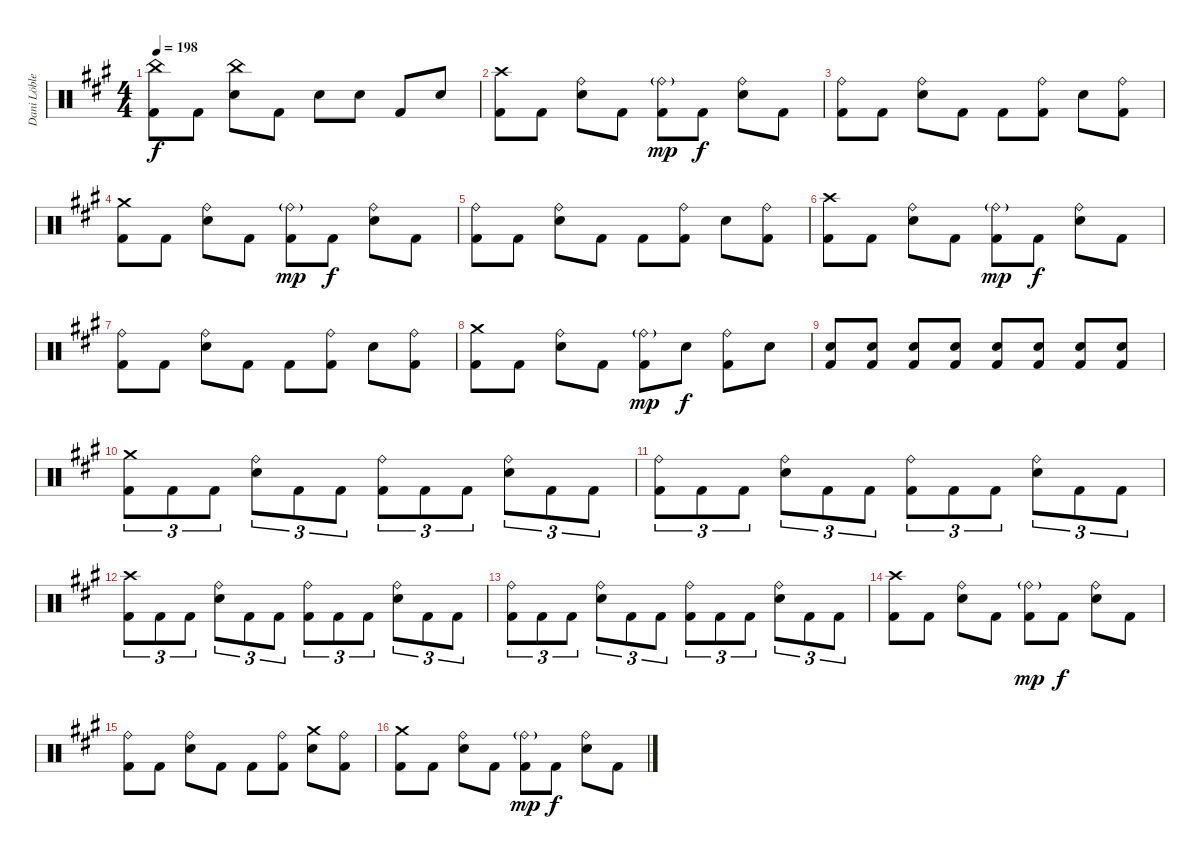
\track ("Dani Löble" "Dani Löble") {instrument percussion}
\staff {score}
\articulation defaults
\ts (4 4)
\tempo 198
\clef neutral
\ks f#minor
("China (hit)" "Kick (hit) 2").8{dy f} "Kick (hit) 2".8 ("China (hit)" "Snare (hit) 2").8 "Kick (hit) 2".8 "Snare (hit) 2".8 "Snare (hit) 2".8 "Kick (hit) 2".8 "Snare (hit) 2".8 |
("Crash high (hit)" "Kick (hit) 2").8 "Kick (hit) 2".8 ("Ride (bell)" "Snare (hit) 2").8 "Kick (hit) 2".8 ("Ride (bell)"{g} "Kick (hit) 2").8{dy mp} "Kick (hit) 2".8{dy f} ("Ride (bell)" "Snare (hit) 2").8 "Kick (hit) 2".8 |
("Ride (bell)" "Kick (hit) 2").8 "Kick (hit) 2".8 ("Ride (bell)" "Snare (hit) 2").8 "Kick (hit) 2".8 "Kick (hit) 2".8 ("Ride (bell)" "Kick (hit) 2").8 "Snare (hit) 2".8 ("Ride (bell)" "Kick (hit) 2").8 |
("Crash medium (hit)" "Kick (hit) 2").8 "Kick (hit) 2".8 ("Ride (bell)" "Snare (hit) 2").8 "Kick (hit) 2".8 ("Ride (bell)"{g} "Kick (hit) 2").8{dy mp} "Kick (hit) 2".8{dy f} ("Ride (bell)" "Snare (hit) 2").8 "Kick (hit) 2".8 |
("Ride (bell)" "Kick (hit) 2").8 "Kick (hit) 2".8 ("Ride (bell)" "Snare (hit) 2").8 "Kick (hit) 2".8 "Kick (hit) 2".8 ("Ride (bell)" "Kick (hit) 2").8 "Snare (hit) 2".8 ("Ride (bell)" "Kick (hit) 2").8 |
("Crash high (hit)" "Kick (hit) 2").8 "Kick (hit) 2".8 ("Ride (bell)" "Snare (hit) 2").8 "Kick (hit) 2".8 ("Ride (bell)"{g} "Kick (hit) 2").8{dy mp} "Kick (hit) 2".8{dy f} ("Ride (bell)" "Snare (hit) 2").8 "Kick (hit) 2".8 |
("Ride (bell)" "Kick (hit) 2").8 "Kick (hit) 2".8 ("Ride (bell)" "Snare (hit) 2").8 "Kick (hit) 2".8 "Kick (hit) 2".8 ("Ride (bell)" "Kick (hit) 2").8 "Snare (hit) 2".8 ("Ride (bell)" "Kick (hit) 2").8 |
("Crash medium (hit)" "Kick (hit) 2").8 "Kick (hit) 2".8 ("Ride (bell)" "Snare (hit) 2").8 "Kick (hit) 2".8 ("Ride (bell)"{g} "Kick (hit) 2").8{dy mp} "Snare (hit) 2".8{dy f} ("Ride (bell)" "Kick (hit) 2").8 "Snare (hit) 2".8 |
("Snare (hit) 2" "Kick (hit) 2").8 ("Snare (hit) 2" "Kick (hit) 2").8 ("Snare (hit) 2" "Kick (hit) 2").8 ("Snare (hit) 2" "Kick (hit) 2").8 ("Snare (hit) 2" "Kick (hit) 2").8 ("Snare (hit) 2" "Kick (hit) 2").8 ("Snare (hit) 2" "Kick (hit) 2").8 ("Snare (hit) 2" "Kick (hit) 2").8 |
("Crash medium (hit)" "Kick (hit) 2").8{tu (3 2)} "Kick (hit) 2".8{tu (3 2)} "Kick (hit) 2".8{tu (3 2)} ("Ride (bell)" "Snare (hit) 2").8{tu (3 2)} "Kick (hit) 2".8{tu (3 2)} "Kick (hit) 2".8{tu (3 2)} ("Ride (bell)" "Kick (hit) 2").8{tu (3 2)} "Kick (hit) 2".8{tu (3 2)} "Kick (hit) 2".8{tu (3 2)} ("Ride (bell)" "Snare (hit) 2").8{tu (3 2)} "Kick (hit) 2".8{tu (3 2)} "Kick (hit) 2".8{tu (3 2)} |
("Ride (bell)" "Kick (hit) 2").8{tu (3 2)} "Kick (hit) 2".8{tu (3 2)} "Kick (hit) 2".8{tu (3 2)} ("Ride (bell)" "Snare (hit) 2").8{tu (3 2)} "Kick (hit) 2".8{tu (3 2)} "Kick (hit) 2".8{tu (3 2)} ("Ride (bell)" "Kick (hit) 2").8{tu (3 2)} "Kick (hit) 2".8{tu (3 2)} "Kick (hit) 2".8{tu (3 2)} ("Ride (bell)" "Snare (hit) 2").8{tu (3 2)} "Kick (hit) 2".8{tu (3 2)} "Kick (hit) 2".8{tu (3 2)} |
("Crash high (hit)" "Kick (hit) 2").8{tu (3 2)} "Kick (hit) 2".8{tu (3 2)} "Kick (hit) 2".8{tu (3 2)} ("Ride (bell)" "Snare (hit) 2").8{tu (3 2)} "Kick (hit) 2".8{tu (3 2)} "Kick (hit) 2".8{tu (3 2)} ("Ride (bell)" "Kick (hit) 2").8{tu (3 2)} "Kick (hit) 2".8{tu (3 2)} "Kick (hit) 2".8{tu (3 2)} ("Ride (bell)" "Snare (hit) 2").8{tu (3 2)} "Kick (hit) 2".8{tu (3 2)} "Kick (hit) 2".8{tu (3 2)} |
("Ride (bell)" "Kick (hit) 2").8{tu (3 2)} "Kick (hit) 2".8{tu (3 2)} "Kick (hit) 2".8{tu (3 2)} ("Ride (bell)" "Snare (hit) 2").8{tu (3 2)} "Kick (hit) 2".8{tu (3 2)} "Kick (hit) 2".8{tu (3 2)} ("Ride (bell)" "Kick (hit) 2").8{tu (3 2)} "Kick (hit) 2".8{tu (3 2)} "Kick (hit) 2".8{tu (3 2)} ("Ride (bell)" "Snare (hit) 2").8{tu (3 2)} "Kick (hit) 2".8{tu (3 2)} "Kick (hit) 2".8{tu (3 2)} |
("Crash high (hit)" "Kick (hit) 2").8 "Kick (hit) 2".8 ("Ride (bell)" "Snare (hit) 2").8 "Kick (hit) 2".8 ("Ride (bell)"{g} "Kick (hit) 2").8{dy mp} "Kick (hit) 2".8{dy f} ("Ride (bell)" "Snare (hit) 2").8 "Kick (hit) 2".8 |
("Ride (bell)" "Kick (hit) 2").8 "Kick (hit) 2".8 ("Ride (bell)" "Snare (hit) 2").8 "Kick (hit) 2".8 "Kick (hit) 2".8 ("Ride (bell)" "Kick (hit) 2").8 ("Crash medium (hit)" "Snare (hit) 2").8 ("Ride (bell)" "Kick (hit) 2").8 |
("Crash medium (hit)" "Kick (hit) 2").8 "Kick (hit) 2".8 ("Ride (bell)" "Snare (hit) 2").8 "Kick (hit) 2".8 ("Ride (bell)"{g} "Kick (hit) 2").8{dy mp} "Kick (hit) 2".8{dy f} ("Ride (bell)" "Snare (hit) 2").8 "Kick (hit) 2".8
